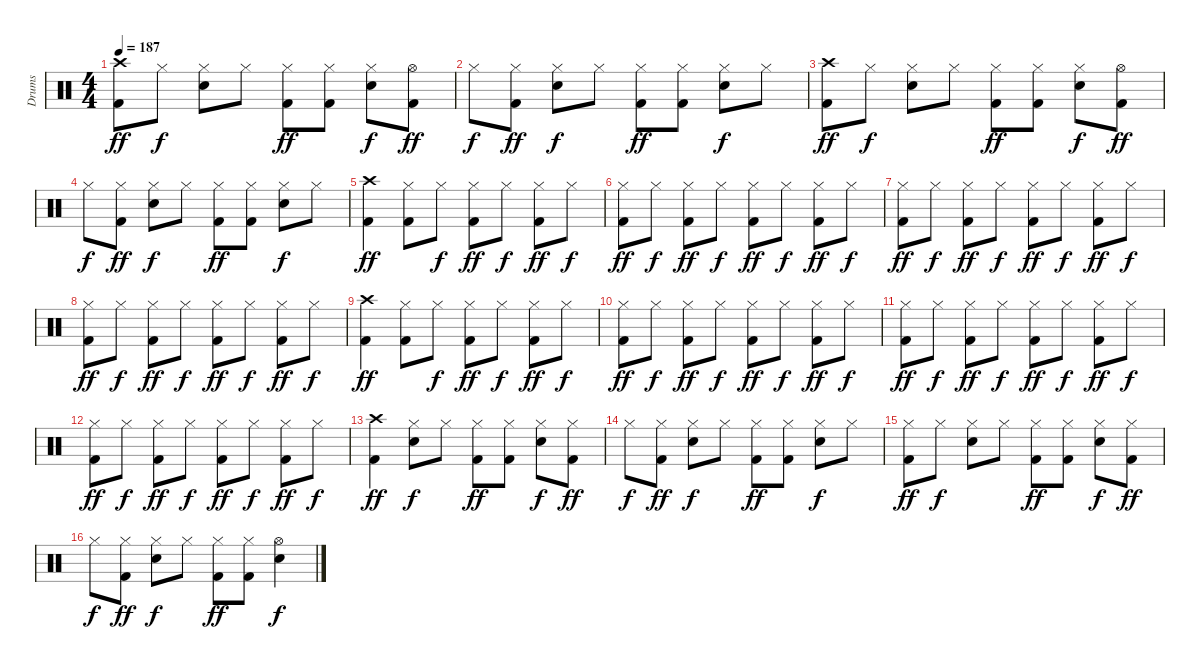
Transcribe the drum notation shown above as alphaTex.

\track ("Drums" "Drums") {instrument percussion}
\staff {score}
\articulation defaults
\ts (4 4)
\tempo 187
\clef neutral
\ks c
("Crash high (hit)" "Kick (hit) 2").8{dy ff} "Hi-Hat (closed)".8{dy f} ("Hi-Hat (closed)" "Electric Snare (hit)").8 "Hi-Hat (closed)".8 ("Hi-Hat (closed)" "Kick (hit) 2").8{dy ff} ("Hi-Hat (closed)" "Kick (hit) 2").8 ("Hi-Hat (closed)" "Electric Snare (hit)").8{dy f} ("Hi-Hat (open)" "Kick (hit) 2").8{dy ff} |
"Hi-Hat (closed)".8{dy f} ("Hi-Hat (closed)" "Kick (hit) 2").8{dy ff} ("Hi-Hat (closed)" "Electric Snare (hit)").8{dy f} "Hi-Hat (closed)".8 ("Hi-Hat (closed)" "Kick (hit) 2").8{dy ff} ("Hi-Hat (closed)" "Kick (hit) 2").8 ("Hi-Hat (closed)" "Electric Snare (hit)").8{dy f} "Hi-Hat (closed)".8 |
("Crash high (hit)" "Kick (hit) 2").8{dy ff} "Hi-Hat (closed)".8{dy f} ("Hi-Hat (closed)" "Electric Snare (hit)").8 "Hi-Hat (closed)".8 ("Hi-Hat (closed)" "Kick (hit) 2").8{dy ff} ("Hi-Hat (closed)" "Kick (hit) 2").8 ("Hi-Hat (closed)" "Electric Snare (hit)").8{dy f} ("Hi-Hat (open)" "Kick (hit) 2").8{dy ff} |
"Hi-Hat (closed)".8{dy f} ("Hi-Hat (closed)" "Kick (hit) 2").8{dy ff} ("Hi-Hat (closed)" "Electric Snare (hit)").8{dy f} "Hi-Hat (closed)".8 ("Hi-Hat (closed)" "Kick (hit) 2").8{dy ff} ("Hi-Hat (closed)" "Kick (hit) 2").8 ("Hi-Hat (closed)" "Electric Snare (hit)").8{dy f} "Hi-Hat (closed)".8 |
("Crash high (hit)" "Kick (hit) 2").4{dy ff} ("Hi-Hat (closed)" "Kick (hit) 2").8 "Hi-Hat (closed)".8{dy f} ("Hi-Hat (closed)" "Kick (hit) 2").8{dy ff} "Hi-Hat (closed)".8{dy f} ("Hi-Hat (closed)" "Kick (hit) 2").8{dy ff} "Hi-Hat (closed)".8{dy f} |
("Hi-Hat (closed)" "Kick (hit) 2").8{dy ff} "Hi-Hat (closed)".8{dy f} ("Hi-Hat (closed)" "Kick (hit) 2").8{dy ff} "Hi-Hat (closed)".8{dy f} ("Hi-Hat (closed)" "Kick (hit) 2").8{dy ff} "Hi-Hat (closed)".8{dy f} ("Hi-Hat (closed)" "Kick (hit) 2").8{dy ff} "Hi-Hat (closed)".8{dy f} |
("Hi-Hat (closed)" "Kick (hit) 2").8{dy ff} "Hi-Hat (closed)".8{dy f} ("Hi-Hat (closed)" "Kick (hit) 2").8{dy ff} "Hi-Hat (closed)".8{dy f} ("Hi-Hat (closed)" "Kick (hit) 2").8{dy ff} "Hi-Hat (closed)".8{dy f} ("Hi-Hat (closed)" "Kick (hit) 2").8{dy ff} "Hi-Hat (closed)".8{dy f} |
("Hi-Hat (closed)" "Kick (hit) 2").8{dy ff} "Hi-Hat (closed)".8{dy f} ("Hi-Hat (closed)" "Kick (hit) 2").8{dy ff} "Hi-Hat (closed)".8{dy f} ("Hi-Hat (closed)" "Kick (hit) 2").8{dy ff} "Hi-Hat (closed)".8{dy f} ("Hi-Hat (closed)" "Kick (hit) 2").8{dy ff} "Hi-Hat (closed)".8{dy f} |
("Crash high (hit)" "Kick (hit) 2").4{dy ff} ("Hi-Hat (closed)" "Kick (hit) 2").8 "Hi-Hat (closed)".8{dy f} ("Hi-Hat (closed)" "Kick (hit) 2").8{dy ff} "Hi-Hat (closed)".8{dy f} ("Hi-Hat (closed)" "Kick (hit) 2").8{dy ff} "Hi-Hat (closed)".8{dy f} |
("Hi-Hat (closed)" "Kick (hit) 2").8{dy ff} "Hi-Hat (closed)".8{dy f} ("Hi-Hat (closed)" "Kick (hit) 2").8{dy ff} "Hi-Hat (closed)".8{dy f} ("Hi-Hat (closed)" "Kick (hit) 2").8{dy ff} "Hi-Hat (closed)".8{dy f} ("Hi-Hat (closed)" "Kick (hit) 2").8{dy ff} "Hi-Hat (closed)".8{dy f} |
("Hi-Hat (closed)" "Kick (hit) 2").8{dy ff} "Hi-Hat (closed)".8{dy f} ("Hi-Hat (closed)" "Kick (hit) 2").8{dy ff} "Hi-Hat (closed)".8{dy f} ("Hi-Hat (closed)" "Kick (hit) 2").8{dy ff} "Hi-Hat (closed)".8{dy f} ("Hi-Hat (closed)" "Kick (hit) 2").8{dy ff} "Hi-Hat (closed)".8{dy f} |
("Hi-Hat (closed)" "Kick (hit) 2").8{dy ff} "Hi-Hat (closed)".8{dy f} ("Hi-Hat (closed)" "Kick (hit) 2").8{dy ff} "Hi-Hat (closed)".8{dy f} ("Hi-Hat (closed)" "Kick (hit) 2").8{dy ff} "Hi-Hat (closed)".8{dy f} ("Hi-Hat (closed)" "Kick (hit) 2").8{dy ff} "Hi-Hat (closed)".8{dy f} |
("Crash high (hit)" "Kick (hit) 2").4{dy ff} ("Hi-Hat (closed)" "Electric Snare (hit)").8{dy f} "Hi-Hat (closed)".8 ("Hi-Hat (closed)" "Kick (hit) 2").8{dy ff} ("Hi-Hat (closed)" "Kick (hit) 2").8 ("Hi-Hat (closed)" "Electric Snare (hit)").8{dy f} ("Hi-Hat (closed)" "Kick (hit) 2").8{dy ff} |
"Hi-Hat (closed)".8{dy f} ("Hi-Hat (closed)" "Kick (hit) 2").8{dy ff} ("Hi-Hat (closed)" "Electric Snare (hit)").8{dy f} "Hi-Hat (closed)".8 ("Hi-Hat (closed)" "Kick (hit) 2").8{dy ff} ("Hi-Hat (closed)" "Kick (hit) 2").8 ("Hi-Hat (closed)" "Electric Snare (hit)").8{dy f} "Hi-Hat (closed)".8 |
("Hi-Hat (closed)" "Kick (hit) 2").8{dy ff} "Hi-Hat (closed)".8{dy f} ("Hi-Hat (closed)" "Electric Snare (hit)").8 "Hi-Hat (closed)".8 ("Hi-Hat (closed)" "Kick (hit) 2").8{dy ff} ("Hi-Hat (closed)" "Kick (hit) 2").8 ("Hi-Hat (closed)" "Electric Snare (hit)").8{dy f} ("Hi-Hat (closed)" "Kick (hit) 2").8{dy ff} |
"Hi-Hat (closed)".8{dy f} ("Hi-Hat (closed)" "Kick (hit) 2").8{dy ff} ("Hi-Hat (closed)" "Electric Snare (hit)").8{dy f} "Hi-Hat (closed)".8 ("Hi-Hat (closed)" "Kick (hit) 2").8{dy ff} ("Hi-Hat (closed)" "Kick (hit) 2").8 ("Hi-Hat (open)" "Electric Snare (hit)").4{dy f}
